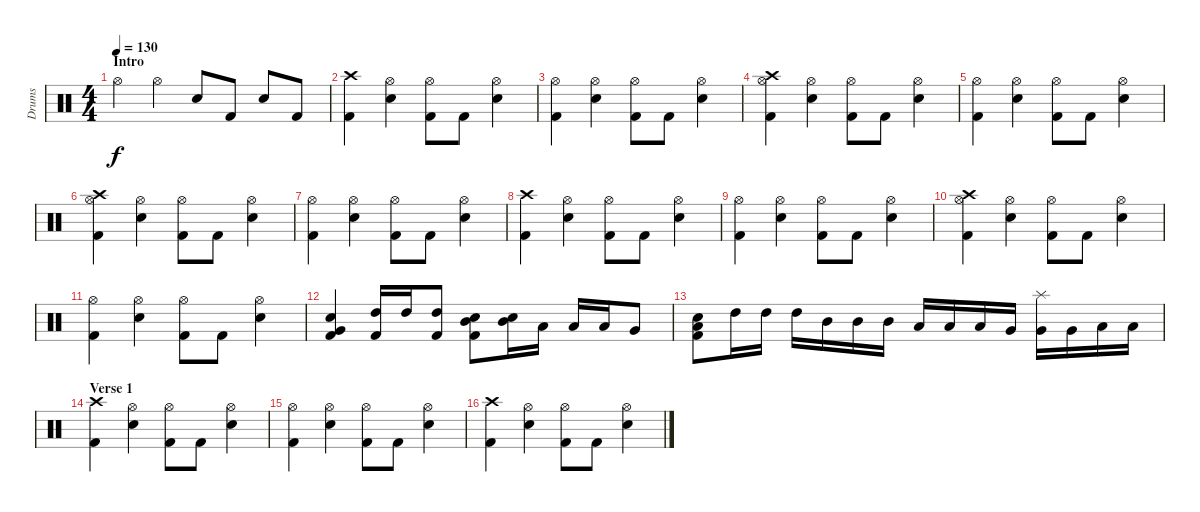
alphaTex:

\track ("Drums" "Drums") {instrument percussion}
\staff {score}
\articulation defaults
\ts (4 4)
\section ("" "Intro")
\tempo 130
\clef neutral
\ks c "Hi-Hat (open)".4{dy f} "Hi-Hat (open)".4 "Snare (hit) 2".8 "Kick (hit) 2".8 "Snare (hit) 2".8 "Kick (hit) 2".8
|
("Kick (hit) 2" "Crash high (hit)").4 ("Snare (hit) 2" "Hi-Hat (open)").4 ("Kick (hit) 2" "Hi-Hat (open)").8 "Kick (hit) 2".8 ("Snare (hit) 2" "Hi-Hat (open)").4 |
("Kick (hit) 2" "Hi-Hat (open)").4 ("Snare (hit) 2" "Hi-Hat (open)").4 ("Kick (hit) 2" "Hi-Hat (open)").8 "Kick (hit) 2".8 ("Snare (hit) 2" "Hi-Hat (open)").4 |
("Kick (hit) 2" "Hi-Hat (open)" "Crash high (hit)").4 ("Snare (hit) 2" "Hi-Hat (open)").4 ("Kick (hit) 2" "Hi-Hat (open)").8 "Kick (hit) 2".8 ("Snare (hit) 2" "Hi-Hat (open)").4 |
("Kick (hit) 2" "Hi-Hat (open)").4 ("Snare (hit) 2" "Hi-Hat (open)").4 ("Kick (hit) 2" "Hi-Hat (open)").8 "Kick (hit) 2".8 ("Snare (hit) 2" "Hi-Hat (open)").4 |
("Kick (hit) 2" "Hi-Hat (open)" "Crash high (hit)").4 ("Snare (hit) 2" "Hi-Hat (open)").4 ("Kick (hit) 2" "Hi-Hat (open)").8 "Kick (hit) 2".8 ("Snare (hit) 2" "Hi-Hat (open)").4 |
("Kick (hit) 2" "Hi-Hat (open)").4 ("Snare (hit) 2" "Hi-Hat (open)").4 ("Kick (hit) 2" "Hi-Hat (open)").8 "Kick (hit) 2".8 ("Snare (hit) 2" "Hi-Hat (open)").4 |
("Kick (hit) 2" "Crash high (hit)").4 ("Snare (hit) 2" "Hi-Hat (open)").4 ("Kick (hit) 2" "Hi-Hat (open)").8 "Kick (hit) 2".8 ("Snare (hit) 2" "Hi-Hat (open)").4 |
("Kick (hit) 2" "Hi-Hat (open)").4 ("Snare (hit) 2" "Hi-Hat (open)").4 ("Kick (hit) 2" "Hi-Hat (open)").8 "Kick (hit) 2".8 ("Snare (hit) 2" "Hi-Hat (open)").4 |
("Kick (hit) 2" "Hi-Hat (open)" "Crash high (hit)").4 ("Snare (hit) 2" "Hi-Hat (open)").4 ("Kick (hit) 2" "Hi-Hat (open)").8 "Kick (hit) 2".8 ("Snare (hit) 2" "Hi-Hat (open)").4 |
("Kick (hit) 2" "Hi-Hat (open)").4 ("Snare (hit) 2" "Hi-Hat (open)").4 ("Kick (hit) 2" "Hi-Hat (open)").8 "Kick (hit) 2".8 ("Snare (hit) 2" "Hi-Hat (open)").4 |
("Very Low Tom (hit)" "Kick (hit) 2" "Snare (hit) 2").4 ("High Tom (hit)" "Kick (hit) 2").16 "High Tom (hit)".16 ("High Tom (hit)" "Kick (hit) 2").8 ("Mid Tom (hit)" "Kick (hit) 2" "Snare (hit) 2").8 ("Mid Tom (hit)" "Snare (hit) 2").16 "Low Tom (hit)".16 "Low Tom (hit)".16 "Low Tom (hit)".16 "Very Low Tom (hit)".8 |
("Low Floor Tom (hit)" "Kick (hit) 2" "Snare (hit) 2").8 "High Tom (hit)".16 "High Tom (hit)".16 "High Tom (hit)".16 "Mid Tom (hit)".16 "Mid Tom (hit)".16 "Mid Tom (hit)".16 "Low Tom (hit)".16 "Low Tom (hit)".16 "Low Tom (hit)".16 "Very Low Tom (hit)".16 ("Very Low Tom (hit)" "Splash (hit)").16 "Very Low Tom (hit)".16 "Low Floor Tom (hit)".16 "Low Floor Tom (hit)".16 |
\section ("" "Verse 1")
("Kick (hit) 2" "Crash high (hit)").4 ("Snare (hit) 2" "Hi-Hat (open)").4 ("Kick (hit) 2" "Hi-Hat (open)").8 "Kick (hit) 2".8 ("Snare (hit) 2" "Hi-Hat (open)").4 |
("Kick (hit) 2" "Hi-Hat (open)").4 ("Snare (hit) 2" "Hi-Hat (open)").4 ("Kick (hit) 2" "Hi-Hat (open)").8 "Kick (hit) 2".8 ("Snare (hit) 2" "Hi-Hat (open)").4 |
("Kick (hit) 2" "Crash high (hit)").4 ("Snare (hit) 2" "Hi-Hat (open)").4 ("Kick (hit) 2" "Hi-Hat (open)").8 "Kick (hit) 2".8 ("Snare (hit) 2" "Hi-Hat (open)").4
